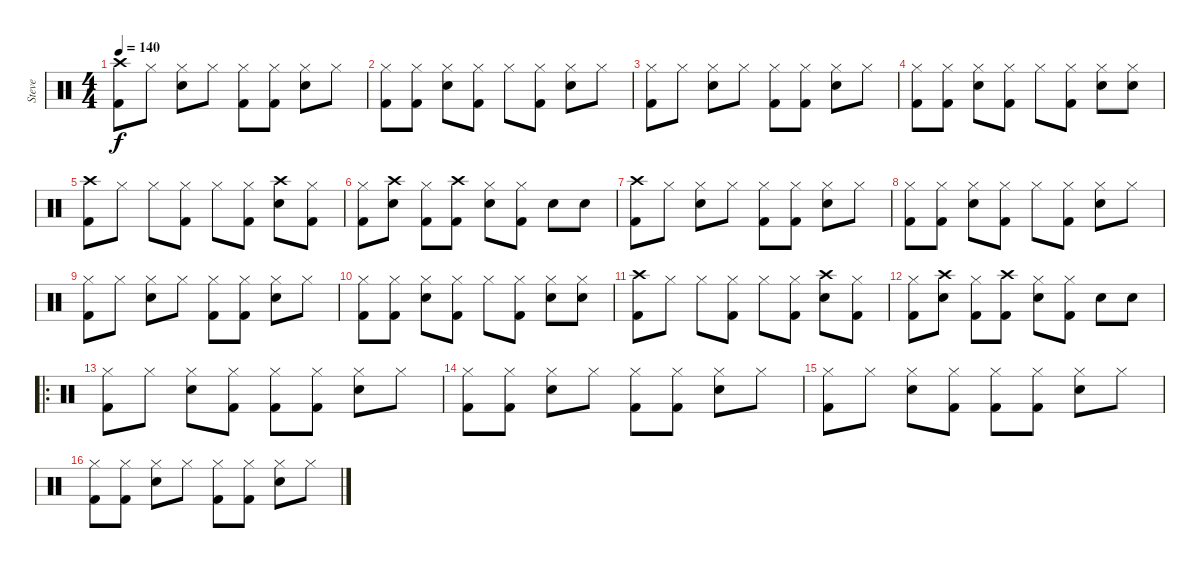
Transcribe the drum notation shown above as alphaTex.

\track ("Steve" "Steve") {instrument percussion}
\staff {score}
\articulation defaults
\ts (4 4)
\tempo 140
\clef neutral
\ks c
("Crash high (hit)" "Kick (hit) 2").8{dy f} "Hi-Hat (closed)".8 ("Hi-Hat (closed)" "Snare (hit) 2").8 "Hi-Hat (closed)".8 ("Hi-Hat (closed)" "Kick (hit) 2").8 ("Hi-Hat (closed)" "Kick (hit) 2").8 ("Hi-Hat (closed)" "Snare (hit) 2").8 "Hi-Hat (closed)".8 |
("Hi-Hat (closed)" "Kick (hit) 2").8 ("Hi-Hat (closed)" "Kick (hit) 2").8 ("Hi-Hat (closed)" "Snare (hit) 2").8 ("Hi-Hat (closed)" "Kick (hit) 2").8 "Hi-Hat (closed)".8 ("Hi-Hat (closed)" "Kick (hit) 2").8 ("Hi-Hat (closed)" "Snare (hit) 2").8 "Hi-Hat (closed)".8 |
("Hi-Hat (closed)" "Kick (hit) 2").8 "Hi-Hat (closed)".8 ("Hi-Hat (closed)" "Snare (hit) 2").8 "Hi-Hat (closed)".8 ("Hi-Hat (closed)" "Kick (hit) 2").8 ("Hi-Hat (closed)" "Kick (hit) 2").8 ("Hi-Hat (closed)" "Snare (hit) 2").8 "Hi-Hat (closed)".8 |
("Hi-Hat (closed)" "Kick (hit) 2").8 ("Hi-Hat (closed)" "Kick (hit) 2").8 ("Hi-Hat (closed)" "Snare (hit) 2").8 ("Hi-Hat (closed)" "Kick (hit) 2").8 "Hi-Hat (closed)".8 ("Hi-Hat (closed)" "Kick (hit) 2").8 ("Hi-Hat (closed)" "Snare (hit) 2").8 ("Hi-Hat (closed)" "Snare (hit) 2").8 |
("Crash high (hit)" "Kick (hit) 2").8 "Hi-Hat (closed)".8 "Hi-Hat (closed)".8 ("Hi-Hat (closed)" "Kick (hit) 2").8 "Hi-Hat (closed)".8 ("Hi-Hat (closed)" "Kick (hit) 2").8 ("Crash high (hit)" "Snare (hit) 2").8 ("Hi-Hat (closed)" "Kick (hit) 2").8 |
("Hi-Hat (closed)" "Kick (hit) 2").8 ("Crash high (hit)" "Snare (hit) 2").8 ("Hi-Hat (closed)" "Kick (hit) 2").8 ("Crash high (hit)" "Kick (hit) 2").8 ("Hi-Hat (closed)" "Snare (hit) 2").8 ("Hi-Hat (closed)" "Kick (hit) 2").8 "Snare (hit) 2".8 "Snare (hit) 2".8 |
("Crash high (hit)" "Kick (hit) 2").8 "Hi-Hat (closed)".8 ("Hi-Hat (closed)" "Snare (hit) 2").8 "Hi-Hat (closed)".8 ("Hi-Hat (closed)" "Kick (hit) 2").8 ("Hi-Hat (closed)" "Kick (hit) 2").8 ("Hi-Hat (closed)" "Snare (hit) 2").8 "Hi-Hat (closed)".8 |
("Hi-Hat (closed)" "Kick (hit) 2").8 ("Hi-Hat (closed)" "Kick (hit) 2").8 ("Hi-Hat (closed)" "Snare (hit) 2").8 ("Hi-Hat (closed)" "Kick (hit) 2").8 "Hi-Hat (closed)".8 ("Hi-Hat (closed)" "Kick (hit) 2").8 ("Hi-Hat (closed)" "Snare (hit) 2").8 "Hi-Hat (closed)".8 |
("Hi-Hat (closed)" "Kick (hit) 2").8 "Hi-Hat (closed)".8 ("Hi-Hat (closed)" "Snare (hit) 2").8 "Hi-Hat (closed)".8 ("Hi-Hat (closed)" "Kick (hit) 2").8 ("Hi-Hat (closed)" "Kick (hit) 2").8 ("Hi-Hat (closed)" "Snare (hit) 2").8 "Hi-Hat (closed)".8 |
("Hi-Hat (closed)" "Kick (hit) 2").8 ("Hi-Hat (closed)" "Kick (hit) 2").8 ("Hi-Hat (closed)" "Snare (hit) 2").8 ("Hi-Hat (closed)" "Kick (hit) 2").8 "Hi-Hat (closed)".8 ("Hi-Hat (closed)" "Kick (hit) 2").8 ("Hi-Hat (closed)" "Snare (hit) 2").8 ("Hi-Hat (closed)" "Snare (hit) 2").8 |
("Crash high (hit)" "Kick (hit) 2").8 "Hi-Hat (closed)".8 "Hi-Hat (closed)".8 ("Hi-Hat (closed)" "Kick (hit) 2").8 "Hi-Hat (closed)".8 ("Hi-Hat (closed)" "Kick (hit) 2").8 ("Crash high (hit)" "Snare (hit) 2").8 ("Hi-Hat (closed)" "Kick (hit) 2").8 |
("Hi-Hat (closed)" "Kick (hit) 2").8 ("Crash high (hit)" "Snare (hit) 2").8 ("Hi-Hat (closed)" "Kick (hit) 2").8 ("Crash high (hit)" "Kick (hit) 2").8 ("Hi-Hat (closed)" "Snare (hit) 2").8 ("Hi-Hat (closed)" "Kick (hit) 2").8 "Snare (hit) 2".8 "Snare (hit) 2".8 |
\ro
("Hi-Hat (closed)" "Kick (hit) 2").8 "Hi-Hat (closed)".8 ("Hi-Hat (closed)" "Snare (hit) 2").8 ("Hi-Hat (closed)" "Kick (hit) 2").8 ("Hi-Hat (closed)" "Kick (hit) 2").8 ("Hi-Hat (closed)" "Kick (hit) 2").8 ("Hi-Hat (closed)" "Snare (hit) 2").8 "Hi-Hat (closed)".8 |
("Hi-Hat (closed)" "Kick (hit) 2").8 ("Hi-Hat (closed)" "Kick (hit) 2").8 ("Hi-Hat (closed)" "Snare (hit) 2").8 "Hi-Hat (closed)".8 ("Hi-Hat (closed)" "Kick (hit) 2").8 ("Hi-Hat (closed)" "Kick (hit) 2").8 ("Hi-Hat (closed)" "Snare (hit) 2").8 "Hi-Hat (closed)".8 |
("Hi-Hat (closed)" "Kick (hit) 2").8 "Hi-Hat (closed)".8 ("Hi-Hat (closed)" "Snare (hit) 2").8 ("Hi-Hat (closed)" "Kick (hit) 2").8 ("Hi-Hat (closed)" "Kick (hit) 2").8 ("Hi-Hat (closed)" "Kick (hit) 2").8 ("Hi-Hat (closed)" "Snare (hit) 2").8 "Hi-Hat (closed)".8 |
("Hi-Hat (closed)" "Kick (hit) 2").8 ("Hi-Hat (closed)" "Kick (hit) 2").8 ("Hi-Hat (closed)" "Snare (hit) 2").8 "Hi-Hat (closed)".8 ("Hi-Hat (closed)" "Kick (hit) 2").8 ("Hi-Hat (closed)" "Kick (hit) 2").8 ("Hi-Hat (closed)" "Snare (hit) 2").8 "Hi-Hat (closed)".8
